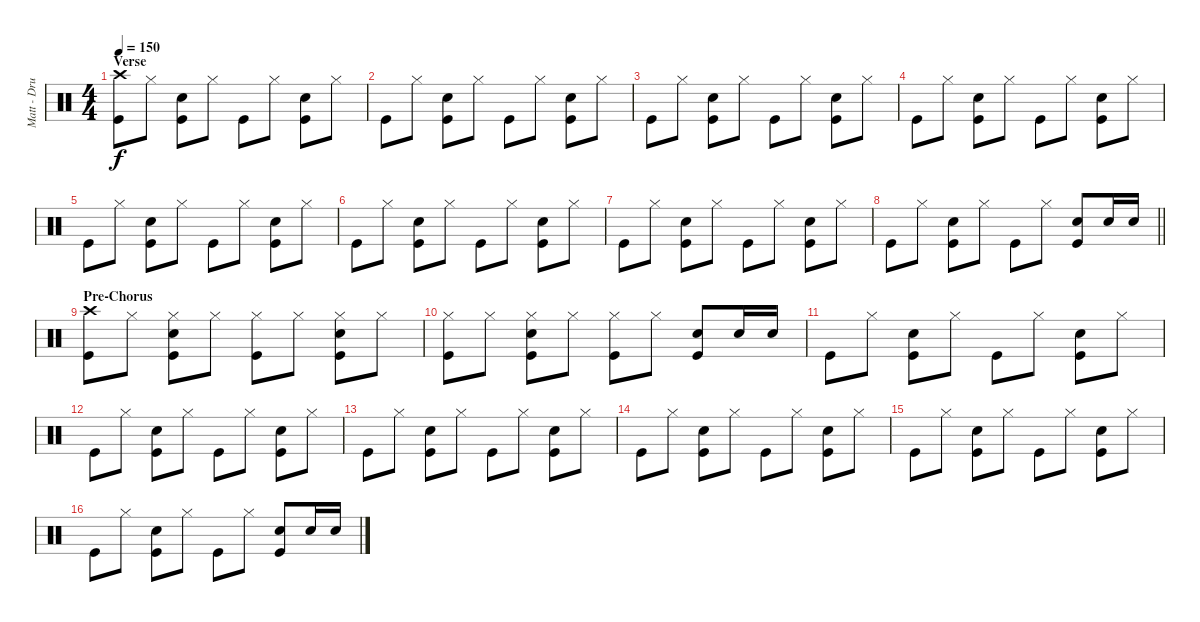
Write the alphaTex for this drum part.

\track ("Matt - Drums" "Matt - Dru") {instrument percussion}
\staff {score}
\articulation defaults
\ts (4 4)
\section ("" "Verse")
\tempo 150
\clef neutral
\ks c
("Crash high (hit)" "Kick (hit)").8{dy f} "Hi-Hat (closed)".8 ("Electric Snare (hit)" "Kick (hit)").8 "Hi-Hat (closed)".8 "Kick (hit)".8 "Hi-Hat (closed)".8 ("Electric Snare (hit)" "Kick (hit)").8 "Hi-Hat (closed)".8 |
"Kick (hit)".8 "Hi-Hat (closed)".8 ("Electric Snare (hit)" "Kick (hit)").8 "Hi-Hat (closed)".8 "Kick (hit)".8 "Hi-Hat (closed)".8 ("Electric Snare (hit)" "Kick (hit)").8 "Hi-Hat (closed)".8 |
"Kick (hit)".8 "Hi-Hat (closed)".8 ("Electric Snare (hit)" "Kick (hit)").8 "Hi-Hat (closed)".8 "Kick (hit)".8 "Hi-Hat (closed)".8 ("Electric Snare (hit)" "Kick (hit)").8 "Hi-Hat (closed)".8 |
"Kick (hit)".8 "Hi-Hat (closed)".8 ("Electric Snare (hit)" "Kick (hit)").8 "Hi-Hat (closed)".8 "Kick (hit)".8 "Hi-Hat (closed)".8 ("Electric Snare (hit)" "Kick (hit)").8 "Hi-Hat (closed)".8 |
"Kick (hit)".8 "Hi-Hat (closed)".8 ("Electric Snare (hit)" "Kick (hit)").8 "Hi-Hat (closed)".8 "Kick (hit)".8 "Hi-Hat (closed)".8 ("Electric Snare (hit)" "Kick (hit)").8 "Hi-Hat (closed)".8 |
"Kick (hit)".8 "Hi-Hat (closed)".8 ("Electric Snare (hit)" "Kick (hit)").8 "Hi-Hat (closed)".8 "Kick (hit)".8 "Hi-Hat (closed)".8 ("Electric Snare (hit)" "Kick (hit)").8 "Hi-Hat (closed)".8 |
"Kick (hit)".8 "Hi-Hat (closed)".8 ("Electric Snare (hit)" "Kick (hit)").8 "Hi-Hat (closed)".8 "Kick (hit)".8 "Hi-Hat (closed)".8 ("Electric Snare (hit)" "Kick (hit)").8 "Hi-Hat (closed)".8 |
\barLineRight lightlight "Kick (hit)".8 "Hi-Hat (closed)".8
("Electric Snare (hit)" "Kick (hit)").8 "Hi-Hat (closed)".8 "Kick (hit)".8 "Hi-Hat (closed)".8 ("Electric Snare (hit)" "Kick (hit)").8 "Electric Snare (hit)".16 "Electric Snare (hit)".16 |
\section ("" "Pre-Chorus")
("Crash high (hit)" "Kick (hit)").8 "Hi-Hat (closed)".8 ("Hi-Hat (closed)" "Electric Snare (hit)" "Kick (hit)").8 "Hi-Hat (closed)".8 ("Hi-Hat (closed)" "Kick (hit)").8 "Hi-Hat (closed)".8 ("Hi-Hat (closed)" "Electric Snare (hit)" "Kick (hit)").8 "Hi-Hat (closed)".8 |
("Hi-Hat (closed)" "Kick (hit)").8 "Hi-Hat (closed)".8 ("Hi-Hat (closed)" "Electric Snare (hit)" "Kick (hit)").8 "Hi-Hat (closed)".8 ("Hi-Hat (closed)" "Kick (hit)").8 "Hi-Hat (closed)".8 ("Electric Snare (hit)" "Kick (hit)").8 "Electric Snare (hit)".16 "Electric Snare (hit)".16 |
"Kick (hit)".8 "Hi-Hat (closed)".8 ("Electric Snare (hit)" "Kick (hit)").8 "Hi-Hat (closed)".8 "Kick (hit)".8 "Hi-Hat (closed)".8 ("Electric Snare (hit)" "Kick (hit)").8 "Hi-Hat (closed)".8 |
"Kick (hit)".8 "Hi-Hat (closed)".8 ("Electric Snare (hit)" "Kick (hit)").8 "Hi-Hat (closed)".8 "Kick (hit)".8 "Hi-Hat (closed)".8 ("Electric Snare (hit)" "Kick (hit)").8 "Hi-Hat (closed)".8 |
"Kick (hit)".8 "Hi-Hat (closed)".8 ("Electric Snare (hit)" "Kick (hit)").8 "Hi-Hat (closed)".8 "Kick (hit)".8 "Hi-Hat (closed)".8 ("Electric Snare (hit)" "Kick (hit)").8 "Hi-Hat (closed)".8 |
"Kick (hit)".8 "Hi-Hat (closed)".8 ("Electric Snare (hit)" "Kick (hit)").8 "Hi-Hat (closed)".8 "Kick (hit)".8 "Hi-Hat (closed)".8 ("Electric Snare (hit)" "Kick (hit)").8 "Hi-Hat (closed)".8 |
"Kick (hit)".8 "Hi-Hat (closed)".8 ("Electric Snare (hit)" "Kick (hit)").8 "Hi-Hat (closed)".8 "Kick (hit)".8 "Hi-Hat (closed)".8 ("Electric Snare (hit)" "Kick (hit)").8 "Hi-Hat (closed)".8 |
"Kick (hit)".8 "Hi-Hat (closed)".8 ("Electric Snare (hit)" "Kick (hit)").8 "Hi-Hat (closed)".8 "Kick (hit)".8 "Hi-Hat (closed)".8 ("Electric Snare (hit)" "Kick (hit)").8 "Electric Snare (hit)".16 "Electric Snare (hit)".16
